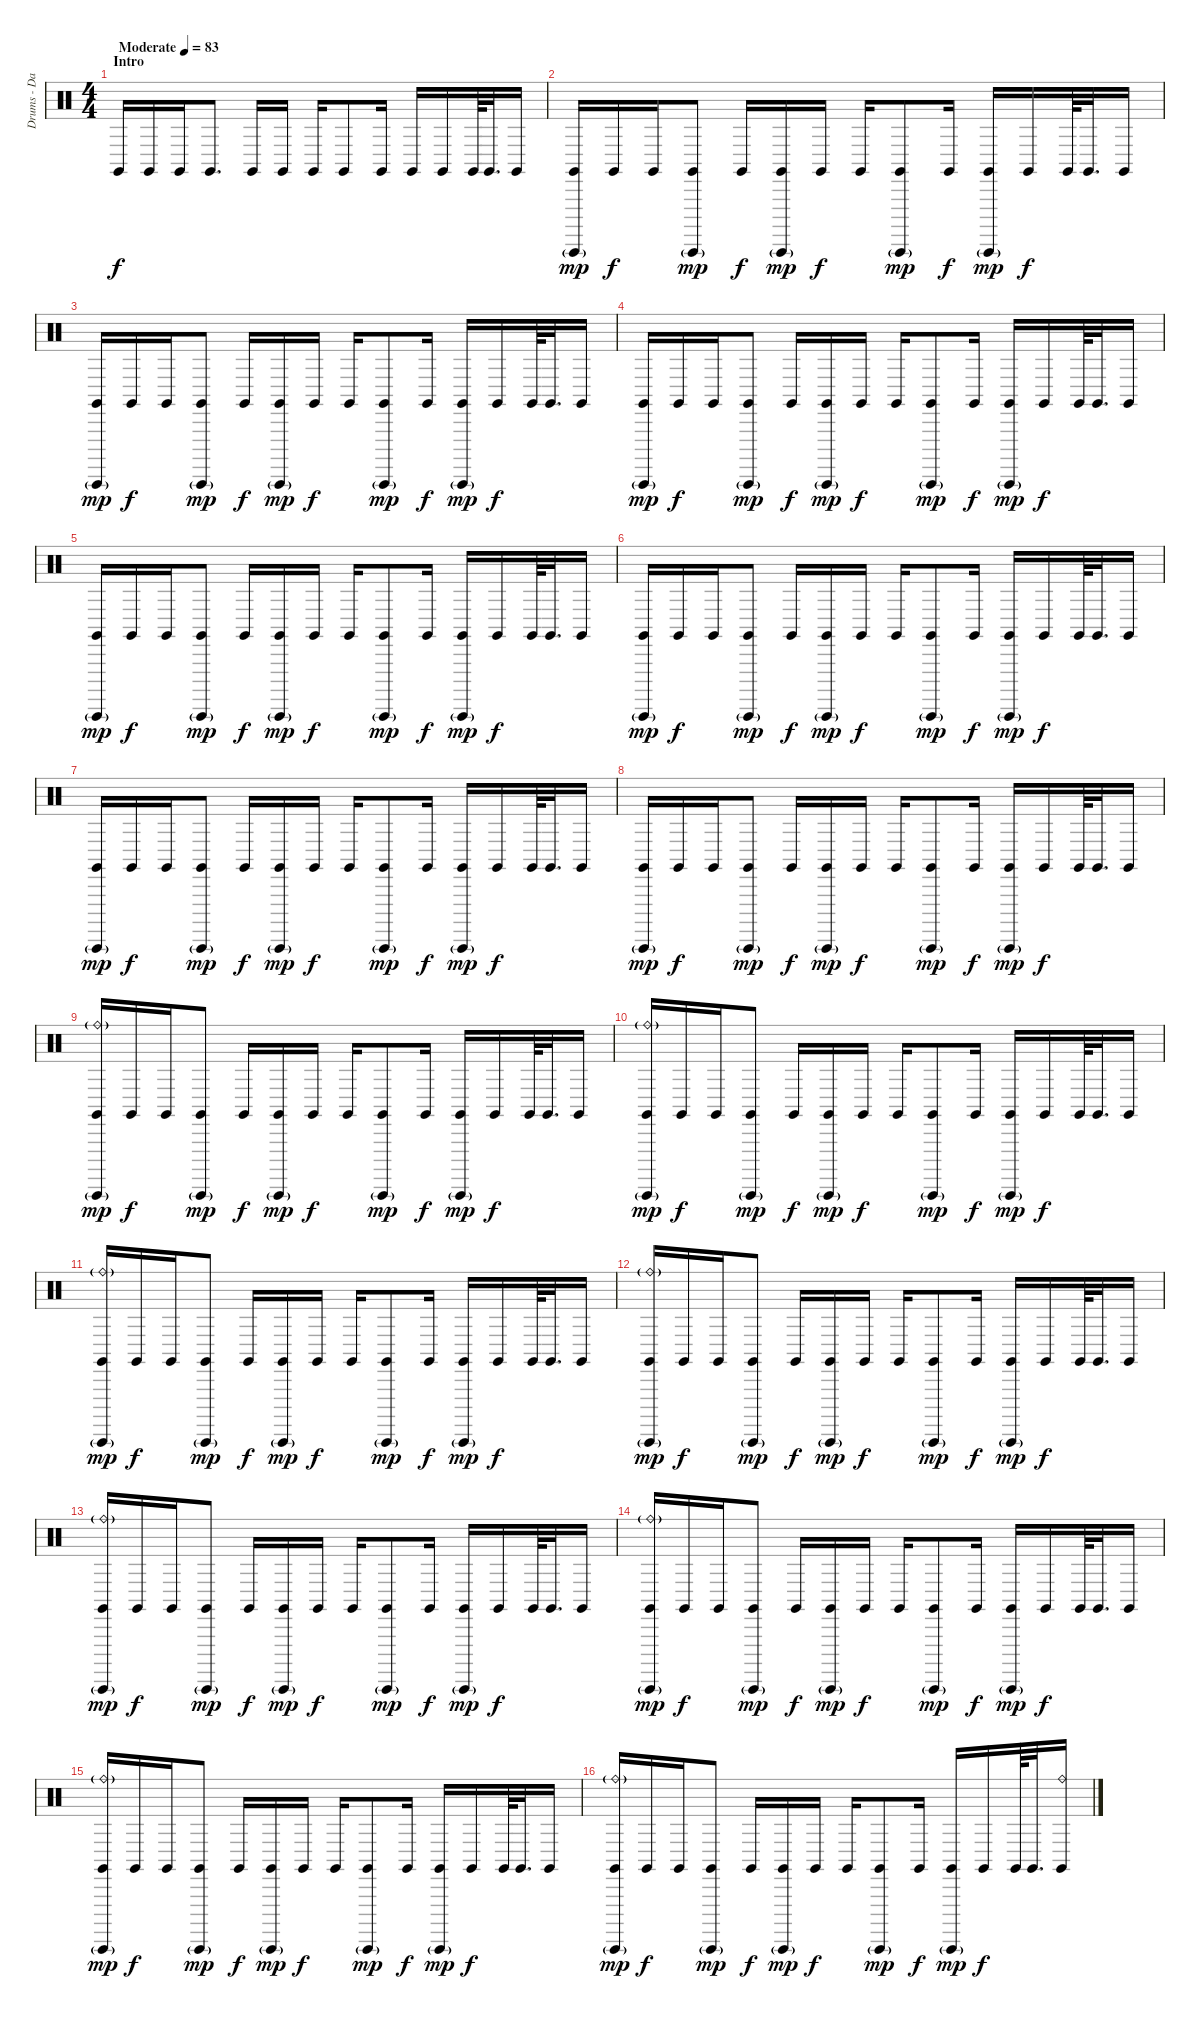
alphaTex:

\track ("Drums - Danny Carey" "Drums - Da") {instrument percussion}
\staff {score}
\articulation defaults
\ts (4 4)
\section ("" "Intro")
\tempo (83 "Moderate")
\clef neutral
\ks c "Claves (hit)".16{dy f} "Claves (hit)".16 "Claves (hit)".16 "Claves (hit)".8{d} "Claves (hit)".16 "Claves (hit)".16 "Claves (hit)".16 "Claves (hit)".8 "Claves (hit)".16 "Claves (hit)".16 "Claves (hit)".16 "Claves (hit)".64 "Claves (hit)".32{d} "Claves (hit)".16
|
("Claves (hit)" "Guiro (hit)"{g}).16{dy mp} "Claves (hit)".16{dy f} "Claves (hit)".16 ("Claves (hit)" "Guiro (hit)"{g}).8{dy mp} "Claves (hit)".16{dy f} ("Claves (hit)" "Guiro (hit)"{g}).16{dy mp} "Claves (hit)".16{dy f} "Claves (hit)".16 ("Claves (hit)" "Guiro (hit)"{g}).8{dy mp} "Claves (hit)".16{dy f} ("Claves (hit)" "Guiro (hit)"{g}).16{dy mp} "Claves (hit)".16{dy f} "Claves (hit)".64 "Claves (hit)".32{d} "Claves (hit)".16 |
("Claves (hit)" "Guiro (hit)"{g}).16{dy mp} "Claves (hit)".16{dy f} "Claves (hit)".16 ("Claves (hit)" "Guiro (hit)"{g}).8{dy mp} "Claves (hit)".16{dy f} ("Claves (hit)" "Guiro (hit)"{g}).16{dy mp} "Claves (hit)".16{dy f} "Claves (hit)".16 ("Claves (hit)" "Guiro (hit)"{g}).8{dy mp} "Claves (hit)".16{dy f} ("Claves (hit)" "Guiro (hit)"{g}).16{dy mp} "Claves (hit)".16{dy f} "Claves (hit)".64 "Claves (hit)".32{d} "Claves (hit)".16 |
("Claves (hit)" "Guiro (hit)"{g}).16{dy mp} "Claves (hit)".16{dy f} "Claves (hit)".16 ("Claves (hit)" "Guiro (hit)"{g}).8{dy mp} "Claves (hit)".16{dy f} ("Claves (hit)" "Guiro (hit)"{g}).16{dy mp} "Claves (hit)".16{dy f} "Claves (hit)".16 ("Claves (hit)" "Guiro (hit)"{g}).8{dy mp} "Claves (hit)".16{dy f} ("Claves (hit)" "Guiro (hit)"{g}).16{dy mp} "Claves (hit)".16{dy f} "Claves (hit)".64 "Claves (hit)".32{d} "Claves (hit)".16 |
("Claves (hit)" "Guiro (hit)"{g}).16{dy mp} "Claves (hit)".16{dy f} "Claves (hit)".16 ("Claves (hit)" "Guiro (hit)"{g}).8{dy mp} "Claves (hit)".16{dy f} ("Claves (hit)" "Guiro (hit)"{g}).16{dy mp} "Claves (hit)".16{dy f} "Claves (hit)".16 ("Claves (hit)" "Guiro (hit)"{g}).8{dy mp} "Claves (hit)".16{dy f} ("Claves (hit)" "Guiro (hit)"{g}).16{dy mp} "Claves (hit)".16{dy f} "Claves (hit)".64 "Claves (hit)".32{d} "Claves (hit)".16 |
("Claves (hit)" "Guiro (hit)"{g}).16{dy mp} "Claves (hit)".16{dy f} "Claves (hit)".16 ("Claves (hit)" "Guiro (hit)"{g}).8{dy mp} "Claves (hit)".16{dy f} ("Claves (hit)" "Guiro (hit)"{g}).16{dy mp} "Claves (hit)".16{dy f} "Claves (hit)".16 ("Claves (hit)" "Guiro (hit)"{g}).8{dy mp} "Claves (hit)".16{dy f} ("Claves (hit)" "Guiro (hit)"{g}).16{dy mp} "Claves (hit)".16{dy f} "Claves (hit)".64 "Claves (hit)".32{d} "Claves (hit)".16 |
("Claves (hit)" "Guiro (hit)"{g}).16{dy mp} "Claves (hit)".16{dy f} "Claves (hit)".16 ("Claves (hit)" "Guiro (hit)"{g}).8{dy mp} "Claves (hit)".16{dy f} ("Claves (hit)" "Guiro (hit)"{g}).16{dy mp} "Claves (hit)".16{dy f} "Claves (hit)".16 ("Claves (hit)" "Guiro (hit)"{g}).8{dy mp} "Claves (hit)".16{dy f} ("Claves (hit)" "Guiro (hit)"{g}).16{dy mp} "Claves (hit)".16{dy f} "Claves (hit)".64 "Claves (hit)".32{d} "Claves (hit)".16 |
("Claves (hit)" "Guiro (hit)"{g}).16{dy mp} "Claves (hit)".16{dy f} "Claves (hit)".16 ("Claves (hit)" "Guiro (hit)"{g}).8{dy mp} "Claves (hit)".16{dy f} ("Claves (hit)" "Guiro (hit)"{g}).16{dy mp} "Claves (hit)".16{dy f} "Claves (hit)".16 ("Claves (hit)" "Guiro (hit)"{g}).8{dy mp} "Claves (hit)".16{dy f} ("Claves (hit)" "Guiro (hit)"{g}).16{dy mp} "Claves (hit)".16{dy f} "Claves (hit)".64 "Claves (hit)".32{d} "Claves (hit)".16 |
("Claves (hit)" "Guiro (hit)"{g} "Ride (bell)"{g}).16{dy mp} "Claves (hit)".16{dy f} "Claves (hit)".16 ("Claves (hit)" "Guiro (hit)"{g}).8{dy mp} "Claves (hit)".16{dy f} ("Claves (hit)" "Guiro (hit)"{g}).16{dy mp} "Claves (hit)".16{dy f} "Claves (hit)".16 ("Claves (hit)" "Guiro (hit)"{g}).8{dy mp} "Claves (hit)".16{dy f} ("Claves (hit)" "Guiro (hit)"{g}).16{dy mp} "Claves (hit)".16{dy f} "Claves (hit)".64 "Claves (hit)".32{d} "Claves (hit)".16 |
("Claves (hit)" "Guiro (hit)"{g} "Ride (bell)"{g}).16{dy mp} "Claves (hit)".16{dy f} "Claves (hit)".16 ("Claves (hit)" "Guiro (hit)"{g}).8{dy mp} "Claves (hit)".16{dy f} ("Claves (hit)" "Guiro (hit)"{g}).16{dy mp} "Claves (hit)".16{dy f} "Claves (hit)".16 ("Claves (hit)" "Guiro (hit)"{g}).8{dy mp} "Claves (hit)".16{dy f} ("Claves (hit)" "Guiro (hit)"{g}).16{dy mp} "Claves (hit)".16{dy f} "Claves (hit)".64 "Claves (hit)".32{d} "Claves (hit)".16 |
("Claves (hit)" "Guiro (hit)"{g} "Ride (bell)"{g}).16{dy mp} "Claves (hit)".16{dy f} "Claves (hit)".16 ("Claves (hit)" "Guiro (hit)"{g}).8{dy mp} "Claves (hit)".16{dy f} ("Claves (hit)" "Guiro (hit)"{g}).16{dy mp} "Claves (hit)".16{dy f} "Claves (hit)".16 ("Claves (hit)" "Guiro (hit)"{g}).8{dy mp} "Claves (hit)".16{dy f} ("Claves (hit)" "Guiro (hit)"{g}).16{dy mp} "Claves (hit)".16{dy f} "Claves (hit)".64 "Claves (hit)".32{d} "Claves (hit)".16 |
("Claves (hit)" "Guiro (hit)"{g} "Ride (bell)"{g}).16{dy mp} "Claves (hit)".16{dy f} "Claves (hit)".16 ("Claves (hit)" "Guiro (hit)"{g}).8{dy mp} "Claves (hit)".16{dy f} ("Claves (hit)" "Guiro (hit)"{g}).16{dy mp} "Claves (hit)".16{dy f} "Claves (hit)".16 ("Claves (hit)" "Guiro (hit)"{g}).8{dy mp} "Claves (hit)".16{dy f} ("Claves (hit)" "Guiro (hit)"{g}).16{dy mp} "Claves (hit)".16{dy f} "Claves (hit)".64 "Claves (hit)".32{d} "Claves (hit)".16 |
("Claves (hit)" "Guiro (hit)"{g} "Ride (bell)"{g}).16{dy mp} "Claves (hit)".16{dy f} "Claves (hit)".16 ("Claves (hit)" "Guiro (hit)"{g}).8{dy mp} "Claves (hit)".16{dy f} ("Claves (hit)" "Guiro (hit)"{g}).16{dy mp} "Claves (hit)".16{dy f} "Claves (hit)".16 ("Claves (hit)" "Guiro (hit)"{g}).8{dy mp} "Claves (hit)".16{dy f} ("Claves (hit)" "Guiro (hit)"{g}).16{dy mp} "Claves (hit)".16{dy f} "Claves (hit)".64 "Claves (hit)".32{d} "Claves (hit)".16 |
("Claves (hit)" "Guiro (hit)"{g} "Ride (bell)"{g}).16{dy mp} "Claves (hit)".16{dy f} "Claves (hit)".16 ("Claves (hit)" "Guiro (hit)"{g}).8{dy mp} "Claves (hit)".16{dy f} ("Claves (hit)" "Guiro (hit)"{g}).16{dy mp} "Claves (hit)".16{dy f} "Claves (hit)".16 ("Claves (hit)" "Guiro (hit)"{g}).8{dy mp} "Claves (hit)".16{dy f} ("Claves (hit)" "Guiro (hit)"{g}).16{dy mp} "Claves (hit)".16{dy f} "Claves (hit)".64 "Claves (hit)".32{d} "Claves (hit)".16 |
("Claves (hit)" "Guiro (hit)"{g} "Ride (bell)"{g}).16{dy mp} "Claves (hit)".16{dy f} "Claves (hit)".16 ("Claves (hit)" "Guiro (hit)"{g}).8{dy mp} "Claves (hit)".16{dy f} ("Claves (hit)" "Guiro (hit)"{g}).16{dy mp} "Claves (hit)".16{dy f} "Claves (hit)".16 ("Claves (hit)" "Guiro (hit)"{g}).8{dy mp} "Claves (hit)".16{dy f} ("Claves (hit)" "Guiro (hit)"{g}).16{dy mp} "Claves (hit)".16{dy f} "Claves (hit)".64 "Claves (hit)".32{d} "Claves (hit)".16 |
("Claves (hit)" "Guiro (hit)"{g} "Ride (bell)"{g}).16{dy mp} "Claves (hit)".16{dy f} "Claves (hit)".16 ("Claves (hit)" "Guiro (hit)"{g}).8{dy mp} "Claves (hit)".16{dy f} ("Claves (hit)" "Guiro (hit)"{g}).16{dy mp} "Claves (hit)".16{dy f} "Claves (hit)".16 ("Claves (hit)" "Guiro (hit)"{g}).8{dy mp} "Claves (hit)".16{dy f} ("Claves (hit)" "Guiro (hit)"{g}).16{dy mp} "Claves (hit)".16{dy f} "Claves (hit)".64 "Claves (hit)".32{d} ("Claves (hit)" "Ride (bell)").16
